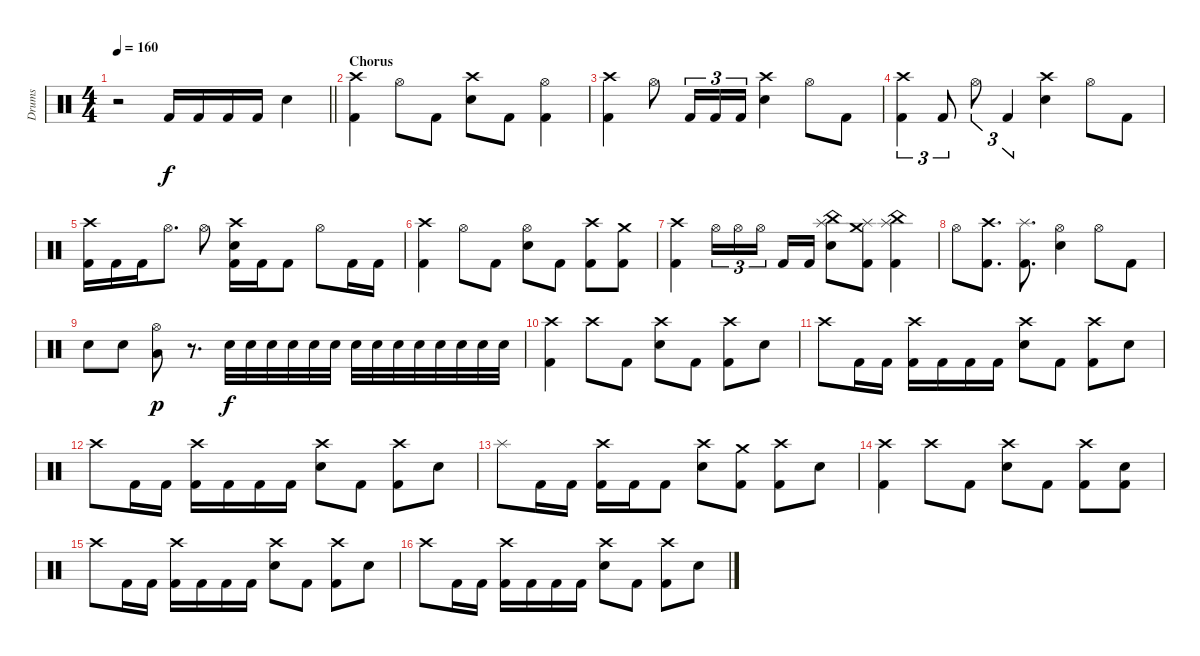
\track ("Drums" "Drums") {instrument percussion}
\staff {score}
\articulation defaults
\ts (4 4)
\tempo 160
\clef neutral
\barLineRight lightlight
\ks c
r.2{dy f} "Kick (hit) 2".16 "Kick (hit) 2".16 "Kick (hit) 2".16 "Kick (hit) 2".16 "Electric Snare (hit)".4 |
\section ("" "Chorus")
("Crash high (hit)" "Kick (hit) 2").4 "Hi-Hat (open)".8 "Kick (hit) 2".8 ("Crash high (hit)" "Electric Snare (hit)").8 "Kick (hit) 2".8 ("Hi-Hat (open)" "Kick (hit) 2").4 |
("Crash high (hit)" "Kick (hit) 2").4 "Hi-Hat (open)".8 "Kick (hit) 2".16{tu (3 2)} "Kick (hit) 2".16{tu (3 2)} "Kick (hit) 2".16{tu (3 2)} ("Crash high (hit)" "Electric Snare (hit)").4 "Hi-Hat (open)".8 "Kick (hit) 2".8 |
("Crash high (hit)" "Kick (hit) 2").4{tu (3 2)} "Kick (hit) 2".8{tu (3 2)} "Hi-Hat (open)".8{tu (3 2)} "Kick (hit) 2".4{tu (3 2)} ("Crash high (hit)" "Electric Snare (hit)").4 "Hi-Hat (open)".8 "Kick (hit) 2".8 |
("Crash high (hit)" "Kick (hit) 2").16 "Kick (hit) 2".16 "Kick (hit) 2".16 "Hi-Hat (open)".8{d} "Hi-Hat (open)".8 ("Crash high (hit)" "Electric Snare (hit)" "Kick (hit) 2").16 "Kick (hit) 2".16 "Kick (hit) 2".8 "Hi-Hat (open)".8 "Kick (hit) 2".16 "Kick (hit) 2".16 |
("Crash high (hit)" "Kick (hit) 2").4 "Hi-Hat (open)".8 "Kick (hit) 2".8 ("Hi-Hat (open)" "Electric Snare (hit)").8 "Kick (hit) 2".8 ("Crash high (hit)" "Kick (hit) 2").8 ("Crash medium (hit)" "Kick (hit) 2").8 |
("Crash high (hit)" "Kick (hit) 2").4 "Hi-Hat (open)".16{tu (3 2)} "Hi-Hat (open)".16{tu (3 2)} "Hi-Hat (open)".16{tu (3 2)} "Kick (hit) 2".16 "Kick (hit) 2".16 ("China (hit)" "Splash (hit)" "Electric Snare (hit)").8 ("Crash medium (hit)" "Splash (hit)" "Kick (hit) 2").8 ("China (hit)" "Splash (hit)" "Kick (hit) 2").4 |
"Hi-Hat (open)".8 ("Crash high (hit)" "Kick (hit) 2").8{d} ("Splash (hit)" "Kick (hit) 2").8{d} ("Hi-Hat (open)" "Electric Snare (hit)").4 "Hi-Hat (open)".8 "Kick (hit) 2".8 |
"Electric Snare (hit)".8 "Electric Snare (hit)".8 ("Hi-Hat (open)" "Low Tom (hit)").8{dy p} r.8{d} "Electric Snare (hit)".32{dy f} "Electric Snare (hit)".32 "Electric Snare (hit)".32 "Electric Snare (hit)".32 "Electric Snare (hit)".32 "Electric Snare (hit)".32 "Electric Snare (hit)".32 "Electric Snare (hit)".32 "Electric Snare (hit)".32 "Electric Snare (hit)".32 "Electric Snare (hit)".32 "Electric Snare (hit)".32 "Electric Snare (hit)".32 "Electric Snare (hit)".32 |
("Crash high (hit)" "Kick (hit) 2").4 "Crash high (hit)".8 "Kick (hit) 2".8 ("Crash high (hit)" "Electric Snare (hit)").8 "Kick (hit) 2".8 ("Crash high (hit)" "Kick (hit) 2").8 "Electric Snare (hit)".8 |
"Crash high (hit)".8 "Kick (hit) 2".16 "Kick (hit) 2".16 ("Crash high (hit)" "Kick (hit) 2").16 "Kick (hit) 2".16 "Kick (hit) 2".16 "Kick (hit) 2".16 ("Crash high (hit)" "Electric Snare (hit)").8 "Kick (hit) 2".8 ("Crash high (hit)" "Kick (hit) 2").8 "Electric Snare (hit)".8 |
"Crash high (hit)".8 "Kick (hit) 2".16 "Kick (hit) 2".16 ("Crash high (hit)" "Kick (hit) 2").16 "Kick (hit) 2".16 "Kick (hit) 2".16 "Kick (hit) 2".16 ("Crash high (hit)" "Electric Snare (hit)").8 "Kick (hit) 2".8 ("Crash high (hit)" "Kick (hit) 2").8 "Electric Snare (hit)".8 |
"Splash (hit)".8 "Kick (hit) 2".16 "Kick (hit) 2".16 ("Crash high (hit)" "Kick (hit) 2").16 "Kick (hit) 2".16 "Kick (hit) 2".8 ("Crash high (hit)" "Electric Snare (hit)").8 ("Crash medium (hit)" "Kick (hit) 2").8 ("Crash high (hit)" "Kick (hit) 2").8 "Electric Snare (hit)".8 |
("Crash high (hit)" "Kick (hit) 2").4 "Crash high (hit)".8 "Kick (hit) 2".8 ("Crash high (hit)" "Electric Snare (hit)").8 "Kick (hit) 2".8 ("Crash high (hit)" "Kick (hit) 2").8 ("Electric Snare (hit)" "Kick (hit) 2").8 |
"Crash high (hit)".8 "Kick (hit) 2".16 "Kick (hit) 2".16 ("Crash high (hit)" "Kick (hit) 2").16 "Kick (hit) 2".16 "Kick (hit) 2".16 "Kick (hit) 2".16 ("Crash high (hit)" "Electric Snare (hit)").8 "Kick (hit) 2".8 ("Crash high (hit)" "Kick (hit) 2").8 "Electric Snare (hit)".8 |
"Crash high (hit)".8 "Kick (hit) 2".16 "Kick (hit) 2".16 ("Crash high (hit)" "Kick (hit) 2").16 "Kick (hit) 2".16 "Kick (hit) 2".16 "Kick (hit) 2".16 ("Crash high (hit)" "Electric Snare (hit)").8 "Kick (hit) 2".8 ("Crash high (hit)" "Kick (hit) 2").8 "Electric Snare (hit)".8
